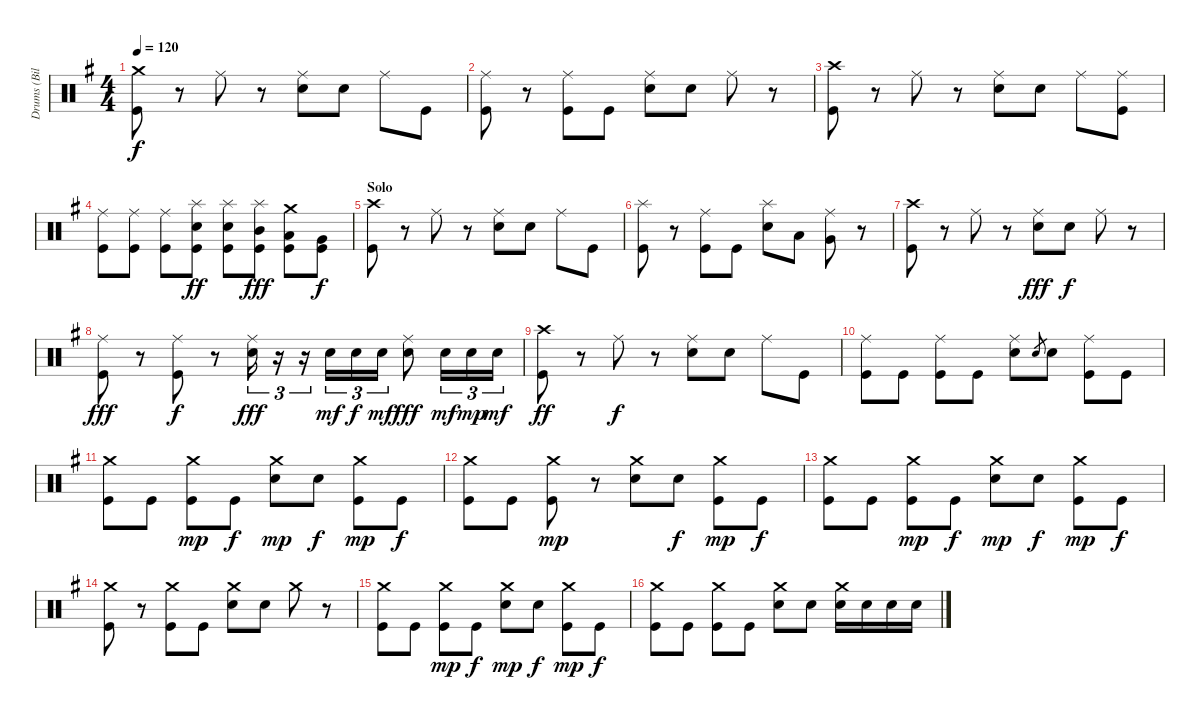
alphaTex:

\track ("Drums (Bill Ward)" "Drums (Bil") {instrument percussion}
\staff {score}
\articulation defaults
\ts (4 4)
\tempo 120
\clef neutral
\ks g
("Crash medium (hit)" "Kick (hit)").8{dy f} r.8 "Ride (middle)".8 r.8 ("Ride (middle)" "Electric Snare (hit)").8 "Electric Snare (hit)".8 "Ride (middle)".8 "Kick (hit)".8 |
("Ride (middle)" "Kick (hit)").8 r.8 ("Ride (middle)" "Kick (hit)").8 "Kick (hit)".8 ("Ride (middle)" "Electric Snare (hit)").8 "Electric Snare (hit)".8 "Ride (middle)".8 r.8 |
("Crash high (hit)" "Kick (hit)").8 r.8 "Ride (middle)".8 r.8 ("Ride (middle)" "Electric Snare (hit)").8 "Electric Snare (hit)".8 "Ride (middle)".8 ("Ride (middle)" "Kick (hit)").8 |
("Ride (middle)" "Kick (hit)").8 ("Ride (middle)" "Kick (hit)").8 ("Ride (middle)" "Kick (hit)").8 ("Splash (hit)" "Electric Snare (hit)" "Kick (hit)").8{dy ff} ("Splash (hit)" "Electric Snare (hit)" "Kick (hit)").8 ("Splash (hit)" "Mid Tom (hit)" "Kick (hit)").8{dy fff} ("Crash medium (hit)" "Low Tom (hit)" "Kick (hit)").8 ("Very Low Tom (hit)" "Kick (hit)").8{dy f} |
\section ("" "Solo")
("Crash high (hit)" "Kick (hit)").8 r.8 "Ride (middle)".8 r.8 ("Ride (middle)" "Electric Snare (hit)").8 "Electric Snare (hit)".8 "Ride (middle)".8 "Kick (hit)".8 |
("Splash (hit)" "Kick (hit)").8 r.8 ("Ride (middle)" "Kick (hit)").8 "Kick (hit)".8 ("Splash (hit)" "Electric Snare (hit)").8 "Low Tom (hit)".8 ("Ride (middle)" "Very Low Tom (hit)").8 r.8 |
("Crash high (hit)" "Kick (hit)").8 r.8 "Ride (middle)".8 r.8 ("Ride (middle)" "Electric Snare (hit)").8{dy fff} "Electric Snare (hit)".8{dy f} "Ride (middle)".8 r.8 |
("Ride (middle)" "Kick (hit)").8{dy fff} r.8 ("Ride (middle)" "Kick (hit)").8{dy f} r.8 ("Ride (middle)" "Electric Snare (hit)").16{tu (3 2) dy fff} r.16{tu (3 2)} r.16{tu (3 2)} "Electric Snare (hit)".16{tu (3 2) dy mf} "Electric Snare (hit)".16{tu (3 2) dy f} "Electric Snare (hit)".16{tu (3 2) dy mf} ("Ride (middle)" "Electric Snare (hit)").8{dy fff} "Electric Snare (hit)".16{tu (3 2) dy mf} "Electric Snare (hit)".16{tu (3 2) dy mp} "Electric Snare (hit)".16{tu (3 2) dy mf} |
("Crash high (hit)" "Kick (hit)").8{dy ff} r.8 "Ride (middle)".8{dy f} r.8 ("Ride (middle)" "Electric Snare (hit)").8 "Electric Snare (hit)".8 "Ride (middle)".8 "Kick (hit)".8 |
("Ride (middle)" "Kick (hit)").8 "Kick (hit)".8 ("Ride (middle)" "Kick (hit)").8 "Kick (hit)".8 ("Ride (middle)" "Electric Snare (hit)").8 "Electric Snare (hit)".8{gr} "Electric Snare (hit)".8 ("Ride (middle)" "Kick (hit)").8 "Kick (hit)".8 |
("Crash medium (hit)" "Kick (hit)").8 "Kick (hit)".8 ("Crash medium (hit)" "Kick (hit)").8{dy mp} "Kick (hit)".8{dy f} ("Crash medium (hit)" "Electric Snare (hit)").8{dy mp} "Electric Snare (hit)".8{dy f} ("Crash medium (hit)" "Kick (hit)").8{dy mp} "Kick (hit)".8{dy f} |
("Crash medium (hit)" "Kick (hit)").8 "Kick (hit)".8 ("Crash medium (hit)" "Kick (hit)").8{dy mp} r.8 ("Crash medium (hit)" "Electric Snare (hit)").8 "Electric Snare (hit)".8{dy f} ("Crash medium (hit)" "Kick (hit)").8{dy mp} "Kick (hit)".8{dy f} |
("Crash medium (hit)" "Kick (hit)").8 "Kick (hit)".8 ("Crash medium (hit)" "Kick (hit)").8{dy mp} "Kick (hit)".8{dy f} ("Crash medium (hit)" "Electric Snare (hit)").8{dy mp} "Electric Snare (hit)".8{dy f} ("Crash medium (hit)" "Kick (hit)").8{dy mp} "Kick (hit)".8{dy f} |
("Crash medium (hit)" "Kick (hit)").8 r.8 ("Crash medium (hit)" "Kick (hit)").8 "Kick (hit)".8 ("Crash medium (hit)" "Electric Snare (hit)").8 "Electric Snare (hit)".8 "Crash medium (hit)".8 r.8 |
("Crash medium (hit)" "Kick (hit)").8 "Kick (hit)".8 ("Crash medium (hit)" "Kick (hit)").8{dy mp} "Kick (hit)".8{dy f} ("Crash medium (hit)" "Electric Snare (hit)").8{dy mp} "Electric Snare (hit)".8{dy f} ("Crash medium (hit)" "Kick (hit)").8{dy mp} "Kick (hit)".8{dy f} |
("Crash medium (hit)" "Kick (hit)").8 "Kick (hit)".8 ("Crash medium (hit)" "Kick (hit)").8 "Kick (hit)".8 ("Crash medium (hit)" "Electric Snare (hit)").8 "Electric Snare (hit)".8 ("Crash medium (hit)" "Electric Snare (hit)").16 "Electric Snare (hit)".16 "Electric Snare (hit)".16 "Electric Snare (hit)".16
